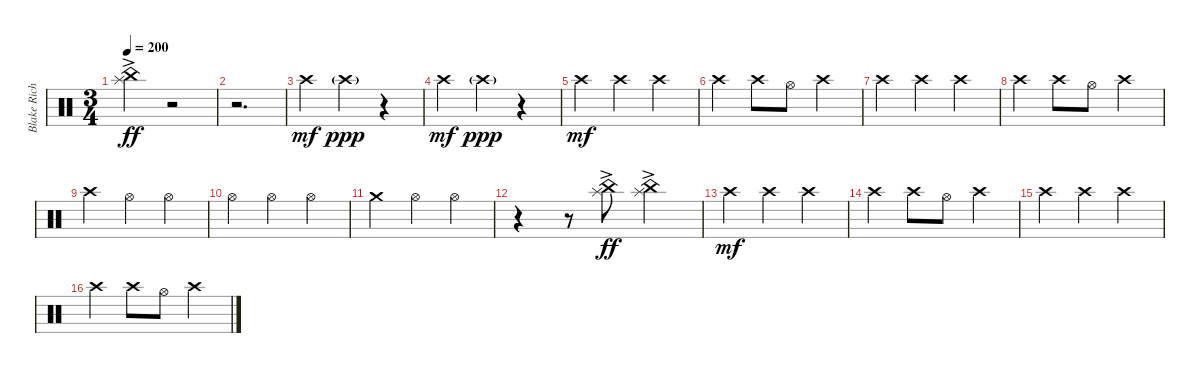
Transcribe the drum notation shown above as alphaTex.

\track ("Blake Richardson Drums" "Blake Rich") {instrument percussion}
\staff {score}
\articulation defaults
\ts (3 4)
\tempo 200
\clef neutral
\ks c
("China (hit)" "Splash (hit)"{ac}).4{dy ff} r.2 |
r.2{d} |
"Crash high (hit)".4{dy mf} "Crash high (hit)"{g}.4{dy ppp} r.4 |
"Crash high (hit)".4{dy mf} "Crash high (hit)"{g}.4{dy ppp} r.4 |
"Crash high (hit)".4{dy mf} "Crash high (hit)".4 "Crash high (hit)".4 |
"Crash high (hit)".4 "Crash high (hit)".8 "Hi-Hat (open)".8 "Crash high (hit)".4 |
"Crash high (hit)".4 "Crash high (hit)".4 "Crash high (hit)".4 |
"Crash high (hit)".4 "Crash high (hit)".8 "Hi-Hat (open)".8 "Crash high (hit)".4 |
"Crash high (hit)".4 "Hi-Hat (open)".4 "Hi-Hat (open)".4 |
"Hi-Hat (open)".4 "Hi-Hat (open)".4 "Hi-Hat (open)".4 |
"Crash medium (hit)".4 "Hi-Hat (open)".4 "Hi-Hat (open)".4 |
r.4 r.8 ("China (hit)" "Splash (hit)"{ac}).8{dy ff} ("China (hit)" "Splash (hit)"{ac}).4 |
"Crash high (hit)".4{dy mf} "Crash high (hit)".4 "Crash high (hit)".4 |
"Crash high (hit)".4 "Crash high (hit)".8 "Hi-Hat (open)".8 "Crash high (hit)".4 |
"Crash high (hit)".4 "Crash high (hit)".4 "Crash high (hit)".4 |
"Crash high (hit)".4 "Crash high (hit)".8 "Hi-Hat (open)".8 "Crash high (hit)".4
